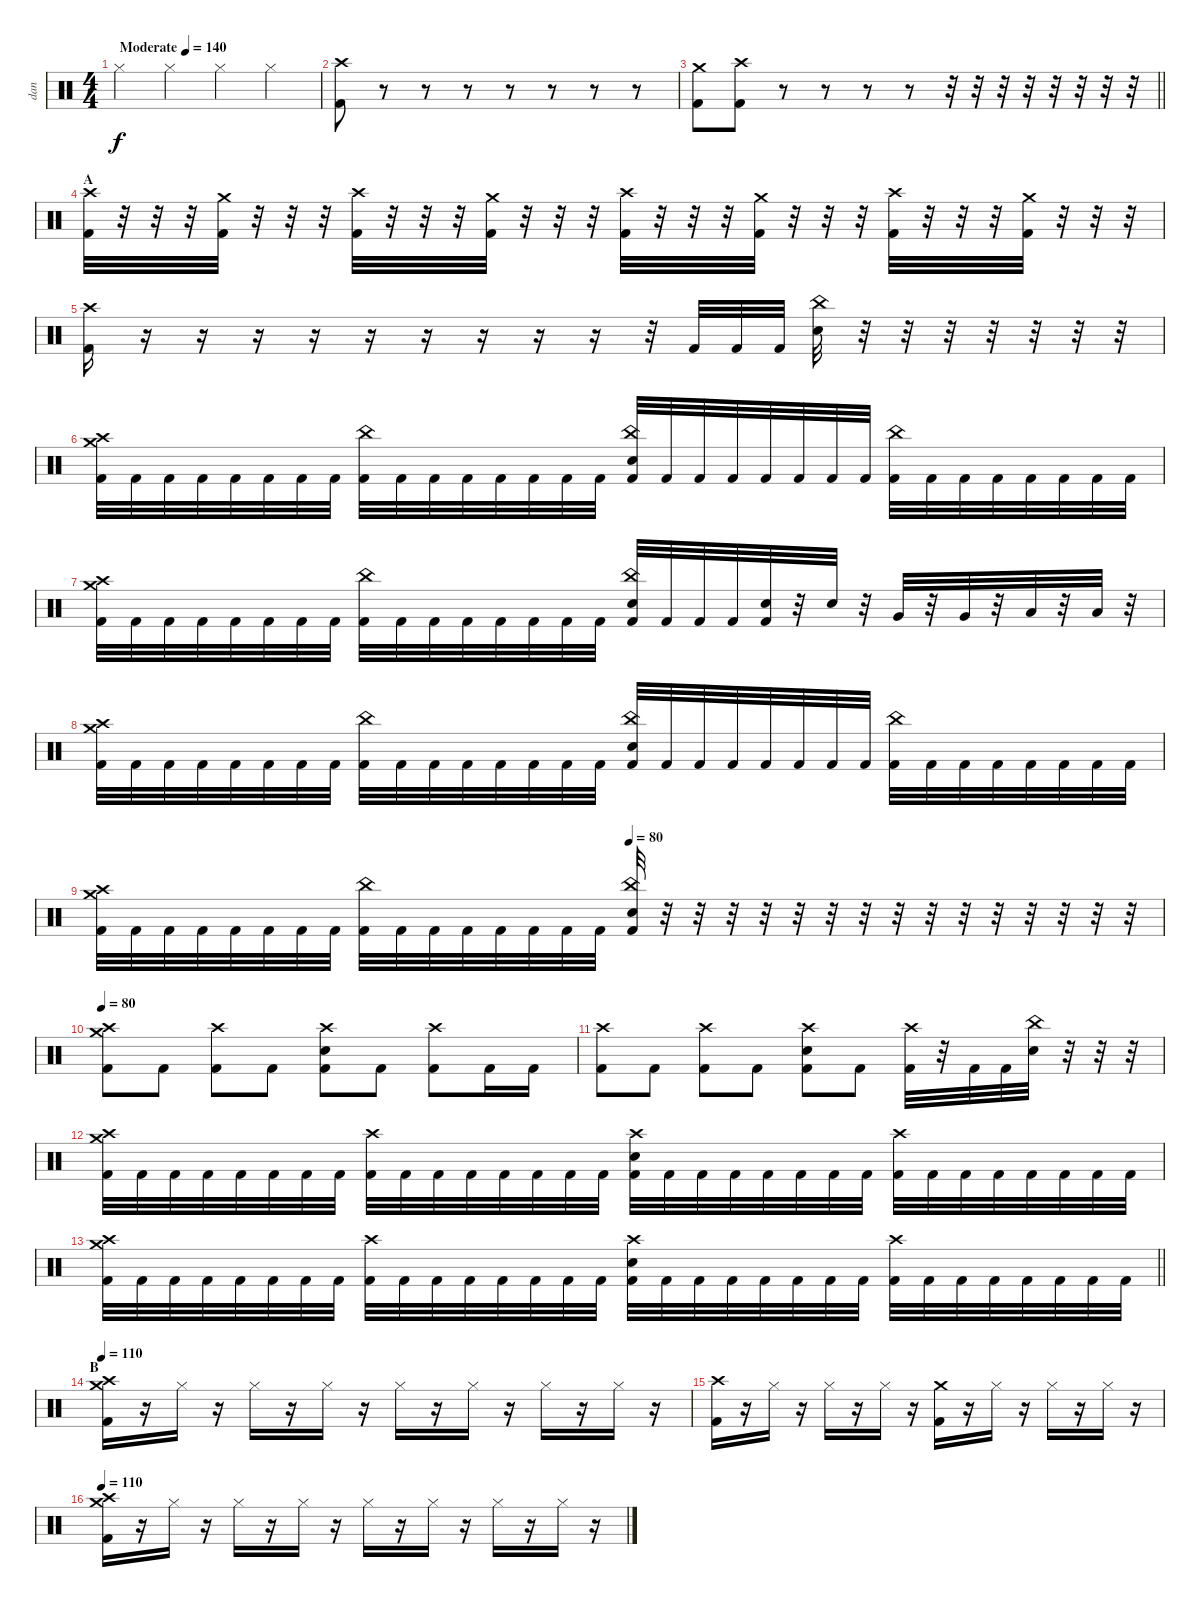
\track ("dan" "dan") {instrument percussion}
\staff {score}
\articulation defaults
\ts (4 4)
\tempo (140 "Moderate")
\clef neutral
\ks c "Hi-Hat (closed)".4{dy f} "Hi-Hat (closed)".4 "Hi-Hat (closed)".4 "Hi-Hat (closed)".4
|
("Crash high (hit)" "Kick (hit) 2").8 r.8 r.8 r.8 r.8 r.8 r.8 r.8 |
\barLineRight lightlight
("Crash medium (hit)" "Kick (hit) 2").8 ("Crash high (hit)" "Kick (hit) 2").8 r.8 r.8 r.8 r.8 r.32 r.32 r.32 r.32 r.32 r.32 r.32 r.32 |
\section ("" "A")
("Crash high (hit)" "Kick (hit) 2").32 r.32 r.32 r.32 ("Crash medium (hit)" "Kick (hit) 2").32 r.32 r.32 r.32 ("Crash high (hit)" "Kick (hit) 2").32 r.32 r.32 r.32 ("Crash medium (hit)" "Kick (hit) 2").32 r.32 r.32 r.32 ("Crash high (hit)" "Kick (hit) 2").32 r.32 r.32 r.32 ("Crash medium (hit)" "Kick (hit) 2").32 r.32 r.32 r.32 ("Crash high (hit)" "Kick (hit) 2").32 r.32 r.32 r.32 ("Crash medium (hit)" "Kick (hit) 2").32 r.32 r.32 r.32 |
("Crash high (hit)" "Kick (hit) 2").16 r.16 r.16 r.16 r.16 r.16 r.16 r.16 r.16 r.16 r.32 "Kick (hit) 2".32 "Kick (hit) 2".32 "Kick (hit) 2".32 ("China (hit)" "Electric Snare (hit)").32 r.32 r.32 r.32 r.32 r.32 r.32 r.32 |
("Crash high (hit)" "Crash medium (hit)" "Kick (hit) 2").32 "Kick (hit) 2".32 "Kick (hit) 2".32 "Kick (hit) 2".32 "Kick (hit) 2".32 "Kick (hit) 2".32 "Kick (hit) 2".32 "Kick (hit) 2".32 ("China (hit)" "Kick (hit) 2").32 "Kick (hit) 2".32 "Kick (hit) 2".32 "Kick (hit) 2".32 "Kick (hit) 2".32 "Kick (hit) 2".32 "Kick (hit) 2".32 "Kick (hit) 2".32 ("China (hit)" "Electric Snare (hit)" "Kick (hit) 2").32 "Kick (hit) 2".32 "Kick (hit) 2".32 "Kick (hit) 2".32 "Kick (hit) 2".32 "Kick (hit) 2".32 "Kick (hit) 2".32 "Kick (hit) 2".32 ("China (hit)" "Kick (hit) 2").32 "Kick (hit) 2".32 "Kick (hit) 2".32 "Kick (hit) 2".32 "Kick (hit) 2".32 "Kick (hit) 2".32 "Kick (hit) 2".32 "Kick (hit) 2".32 |
("Crash high (hit)" "Crash medium (hit)" "Kick (hit) 2").32 "Kick (hit) 2".32 "Kick (hit) 2".32 "Kick (hit) 2".32 "Kick (hit) 2".32 "Kick (hit) 2".32 "Kick (hit) 2".32 "Kick (hit) 2".32 ("China (hit)" "Kick (hit) 2").32 "Kick (hit) 2".32 "Kick (hit) 2".32 "Kick (hit) 2".32 "Kick (hit) 2".32 "Kick (hit) 2".32 "Kick (hit) 2".32 "Kick (hit) 2".32 ("China (hit)" "Electric Snare (hit)" "Kick (hit) 2").32 "Kick (hit) 2".32 "Kick (hit) 2".32 "Kick (hit) 2".32 ("Electric Snare (hit)" "Kick (hit) 2").32 r.32 "Electric Snare (hit)".32 r.32 "Very Low Tom (hit)".32 r.32 "Very Low Tom (hit)".32 r.32 "Low Tom (hit)".32 r.32 "Low Tom (hit)".32 r.32 |
("Crash high (hit)" "Crash medium (hit)" "Kick (hit) 2").32 "Kick (hit) 2".32 "Kick (hit) 2".32 "Kick (hit) 2".32 "Kick (hit) 2".32 "Kick (hit) 2".32 "Kick (hit) 2".32 "Kick (hit) 2".32 ("China (hit)" "Kick (hit) 2").32 "Kick (hit) 2".32 "Kick (hit) 2".32 "Kick (hit) 2".32 "Kick (hit) 2".32 "Kick (hit) 2".32 "Kick (hit) 2".32 "Kick (hit) 2".32 ("China (hit)" "Electric Snare (hit)" "Kick (hit) 2").32 "Kick (hit) 2".32 "Kick (hit) 2".32 "Kick (hit) 2".32 "Kick (hit) 2".32 "Kick (hit) 2".32 "Kick (hit) 2".32 "Kick (hit) 2".32 ("China (hit)" "Kick (hit) 2").32 "Kick (hit) 2".32 "Kick (hit) 2".32 "Kick (hit) 2".32 "Kick (hit) 2".32 "Kick (hit) 2".32 "Kick (hit) 2".32 "Kick (hit) 2".32 |
\tempo (80 0.5)
("Crash high (hit)" "Crash medium (hit)" "Kick (hit) 2").32 "Kick (hit) 2".32 "Kick (hit) 2".32 "Kick (hit) 2".32 "Kick (hit) 2".32 "Kick (hit) 2".32 "Kick (hit) 2".32 "Kick (hit) 2".32 ("China (hit)" "Kick (hit) 2").32 "Kick (hit) 2".32 "Kick (hit) 2".32 "Kick (hit) 2".32 "Kick (hit) 2".32 "Kick (hit) 2".32 "Kick (hit) 2".32 "Kick (hit) 2".32 ("China (hit)" "Electric Snare (hit)" "Kick (hit) 2").32 r.32 r.32 r.32 r.32 r.32 r.32 r.32 r.32 r.32 r.32 r.32 r.32 r.32 r.32 r.32 |
\tempo 80
("Crash high (hit)" "Crash medium (hit)" "Kick (hit) 2").8 "Kick (hit) 2".8 ("Crash high (hit)" "Kick (hit) 2").8 "Kick (hit) 2".8 ("Crash high (hit)" "Electric Snare (hit)" "Kick (hit) 2").8 "Kick (hit) 2".8 ("Crash high (hit)" "Kick (hit) 2").8 "Kick (hit) 2".16 "Kick (hit) 2".16 |
("Crash high (hit)" "Kick (hit) 2").8 "Kick (hit) 2".8 ("Crash high (hit)" "Kick (hit) 2").8 "Kick (hit) 2".8 ("Crash high (hit)" "Electric Snare (hit)" "Kick (hit) 2").8 "Kick (hit) 2".8 ("Crash high (hit)" "Kick (hit) 2").32 r.32 "Kick (hit) 2".32 "Kick (hit) 2".32 ("China (hit)" "Electric Snare (hit)").32 r.32 r.32 r.32 |
("Crash high (hit)" "Crash medium (hit)" "Kick (hit) 2").32 "Kick (hit) 2".32 "Kick (hit) 2".32 "Kick (hit) 2".32 "Kick (hit) 2".32 "Kick (hit) 2".32 "Kick (hit) 2".32 "Kick (hit) 2".32 ("Crash high (hit)" "Kick (hit) 2").32 "Kick (hit) 2".32 "Kick (hit) 2".32 "Kick (hit) 2".32 "Kick (hit) 2".32 "Kick (hit) 2".32 "Kick (hit) 2".32 "Kick (hit) 2".32 ("Crash high (hit)" "Electric Snare (hit)" "Kick (hit) 2").32 "Kick (hit) 2".32 "Kick (hit) 2".32 "Kick (hit) 2".32 "Kick (hit) 2".32 "Kick (hit) 2".32 "Kick (hit) 2".32 "Kick (hit) 2".32 ("Crash high (hit)" "Kick (hit) 2").32 "Kick (hit) 2".32 "Kick (hit) 2".32 "Kick (hit) 2".32 "Kick (hit) 2".32 "Kick (hit) 2".32 "Kick (hit) 2".32 "Kick (hit) 2".32 |
\barLineRight lightlight
("Crash high (hit)" "Crash medium (hit)" "Kick (hit) 2").32 "Kick (hit) 2".32 "Kick (hit) 2".32 "Kick (hit) 2".32 "Kick (hit) 2".32 "Kick (hit) 2".32 "Kick (hit) 2".32 "Kick (hit) 2".32 ("Crash high (hit)" "Kick (hit) 2").32 "Kick (hit) 2".32 "Kick (hit) 2".32 "Kick (hit) 2".32 "Kick (hit) 2".32 "Kick (hit) 2".32 "Kick (hit) 2".32 "Kick (hit) 2".32 ("Crash high (hit)" "Electric Snare (hit)" "Kick (hit) 2").32 "Kick (hit) 2".32 "Kick (hit) 2".32 "Kick (hit) 2".32 "Kick (hit) 2".32 "Kick (hit) 2".32 "Kick (hit) 2".32 "Kick (hit) 2".32 ("Crash high (hit)" "Kick (hit) 2").32 "Kick (hit) 2".32 "Kick (hit) 2".32 "Kick (hit) 2".32 "Kick (hit) 2".32 "Kick (hit) 2".32 "Kick (hit) 2".32 "Kick (hit) 2".32 |
\section ("" "B")
\tempo 110
("Crash high (hit)" "Crash medium (hit)" "Kick (hit) 2").16 r.16 "Hi-Hat (closed)".16 r.16 "Hi-Hat (closed)".16 r.16 "Hi-Hat (closed)".16 r.16 "Hi-Hat (closed)".16 r.16 "Hi-Hat (closed)".16 r.16 "Hi-Hat (closed)".16 r.16 "Hi-Hat (closed)".16 r.16 |
("Crash high (hit)" "Kick (hit) 2").16 r.16 "Hi-Hat (closed)".16 r.16 "Hi-Hat (closed)".16 r.16 "Hi-Hat (closed)".16 r.16 ("Crash medium (hit)" "Kick (hit) 2").16 r.16 "Hi-Hat (closed)".16 r.16 "Hi-Hat (closed)".16 r.16 "Hi-Hat (closed)".16 r.16 |
\tempo 110
("Crash high (hit)" "Crash medium (hit)" "Kick (hit) 2").16 r.16 "Hi-Hat (closed)".16 r.16 "Hi-Hat (closed)".16 r.16 "Hi-Hat (closed)".16 r.16 "Hi-Hat (closed)".16 r.16 "Hi-Hat (closed)".16 r.16 "Hi-Hat (closed)".16 r.16 "Hi-Hat (closed)".16 r.16
